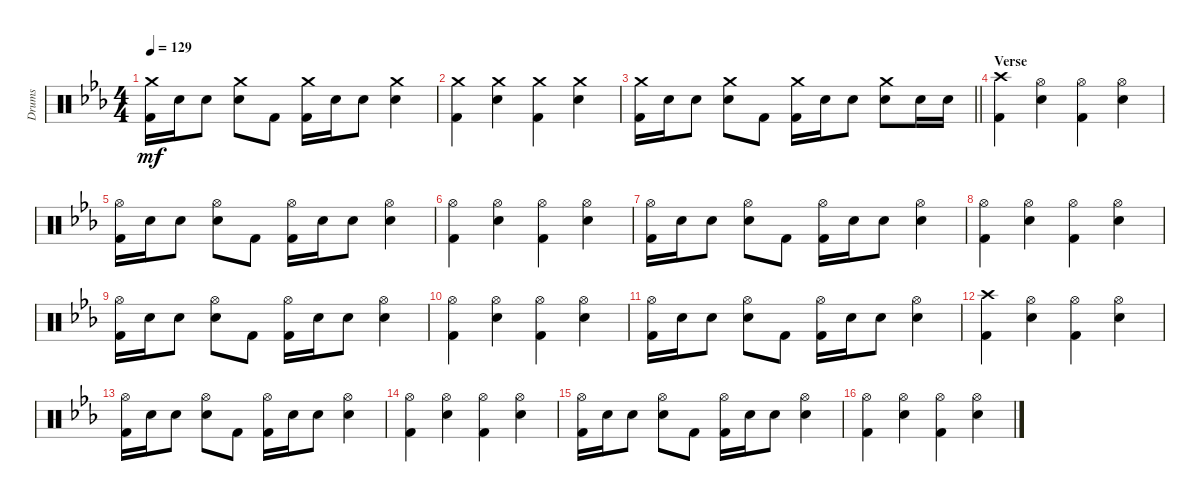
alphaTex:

\track ("Drums" "Drums") {instrument percussion}
\staff {score}
\articulation defaults
\ts (4 4)
\tempo 129
\clef neutral
\ks eb
("Crash medium (hit)" "Kick (hit) 2").16{dy mf} "Electric Snare (hit)".16 "Electric Snare (hit)".8 ("Crash medium (hit)" "Electric Snare (hit)").8 "Kick (hit) 2".8 ("Crash medium (hit)" "Kick (hit) 2").16 "Electric Snare (hit)".16 "Electric Snare (hit)".8 ("Crash medium (hit)" "Electric Snare (hit)").4 |
("Crash medium (hit)" "Kick (hit) 2").4 ("Crash medium (hit)" "Electric Snare (hit)").4 ("Crash medium (hit)" "Kick (hit) 2").4 ("Crash medium (hit)" "Electric Snare (hit)").4 |
\barLineRight lightlight
("Crash medium (hit)" "Kick (hit) 2").16 "Electric Snare (hit)".16 "Electric Snare (hit)".8 ("Crash medium (hit)" "Electric Snare (hit)").8 "Kick (hit) 2".8 ("Crash medium (hit)" "Kick (hit) 2").16 "Electric Snare (hit)".16 "Electric Snare (hit)".8 ("Crash medium (hit)" "Electric Snare (hit)").8 "Electric Snare (hit)".16 "Electric Snare (hit)".16 |
\section ("" "Verse")
("Crash high (hit)" "Kick (hit) 2").4 ("Hi-Hat (open)" "Electric Snare (hit)").4 ("Hi-Hat (open)" "Kick (hit) 2").4 ("Hi-Hat (open)" "Electric Snare (hit)").4 |
("Hi-Hat (open)" "Kick (hit) 2").16 "Electric Snare (hit)".16 "Electric Snare (hit)".8 ("Hi-Hat (open)" "Electric Snare (hit)").8 "Kick (hit) 2".8 ("Hi-Hat (open)" "Kick (hit) 2").16 "Electric Snare (hit)".16 "Electric Snare (hit)".8 ("Hi-Hat (open)" "Electric Snare (hit)").4 |
("Hi-Hat (open)" "Kick (hit) 2").4 ("Hi-Hat (open)" "Electric Snare (hit)").4 ("Hi-Hat (open)" "Kick (hit) 2").4 ("Hi-Hat (open)" "Electric Snare (hit)").4 |
("Hi-Hat (open)" "Kick (hit) 2").16 "Electric Snare (hit)".16 "Electric Snare (hit)".8 ("Hi-Hat (open)" "Electric Snare (hit)").8 "Kick (hit) 2".8 ("Hi-Hat (open)" "Kick (hit) 2").16 "Electric Snare (hit)".16 "Electric Snare (hit)".8 ("Hi-Hat (open)" "Electric Snare (hit)").4 |
("Hi-Hat (open)" "Kick (hit) 2").4 ("Hi-Hat (open)" "Electric Snare (hit)").4 ("Hi-Hat (open)" "Kick (hit) 2").4 ("Hi-Hat (open)" "Electric Snare (hit)").4 |
("Hi-Hat (open)" "Kick (hit) 2").16 "Electric Snare (hit)".16 "Electric Snare (hit)".8 ("Hi-Hat (open)" "Electric Snare (hit)").8 "Kick (hit) 2".8 ("Hi-Hat (open)" "Kick (hit) 2").16 "Electric Snare (hit)".16 "Electric Snare (hit)".8 ("Hi-Hat (open)" "Electric Snare (hit)").4 |
("Hi-Hat (open)" "Kick (hit) 2").4 ("Hi-Hat (open)" "Electric Snare (hit)").4 ("Hi-Hat (open)" "Kick (hit) 2").4 ("Hi-Hat (open)" "Electric Snare (hit)").4 |
("Hi-Hat (open)" "Kick (hit) 2").16 "Electric Snare (hit)".16 "Electric Snare (hit)".8 ("Hi-Hat (open)" "Electric Snare (hit)").8 "Kick (hit) 2".8 ("Hi-Hat (open)" "Kick (hit) 2").16 "Electric Snare (hit)".16 "Electric Snare (hit)".8 ("Hi-Hat (open)" "Electric Snare (hit)").4 |
("Crash high (hit)" "Kick (hit) 2").4 ("Hi-Hat (open)" "Electric Snare (hit)").4 ("Hi-Hat (open)" "Kick (hit) 2").4 ("Hi-Hat (open)" "Electric Snare (hit)").4 |
("Hi-Hat (open)" "Kick (hit) 2").16 "Electric Snare (hit)".16 "Electric Snare (hit)".8 ("Hi-Hat (open)" "Electric Snare (hit)").8 "Kick (hit) 2".8 ("Hi-Hat (open)" "Kick (hit) 2").16 "Electric Snare (hit)".16 "Electric Snare (hit)".8 ("Hi-Hat (open)" "Electric Snare (hit)").4 |
("Hi-Hat (open)" "Kick (hit) 2").4 ("Hi-Hat (open)" "Electric Snare (hit)").4 ("Hi-Hat (open)" "Kick (hit) 2").4 ("Hi-Hat (open)" "Electric Snare (hit)").4 |
("Hi-Hat (open)" "Kick (hit) 2").16 "Electric Snare (hit)".16 "Electric Snare (hit)".8 ("Hi-Hat (open)" "Electric Snare (hit)").8 "Kick (hit) 2".8 ("Hi-Hat (open)" "Kick (hit) 2").16 "Electric Snare (hit)".16 "Electric Snare (hit)".8 ("Hi-Hat (open)" "Electric Snare (hit)").4 |
("Hi-Hat (open)" "Kick (hit) 2").4 ("Hi-Hat (open)" "Electric Snare (hit)").4 ("Hi-Hat (open)" "Kick (hit) 2").4 ("Hi-Hat (open)" "Electric Snare (hit)").4
